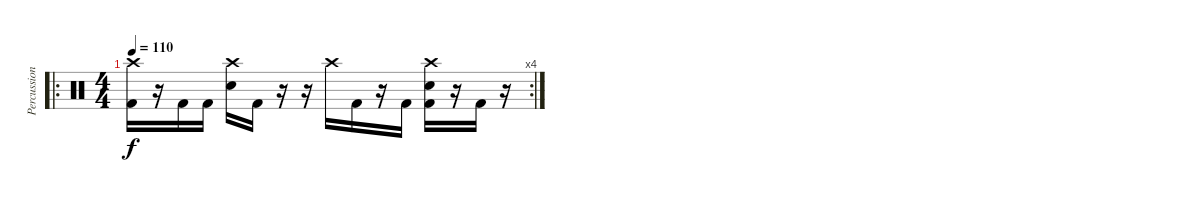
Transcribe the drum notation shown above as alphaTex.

\track ("Percussion" "Percussion") {instrument percussion}
\staff {score}
\articulation defaults
\ro
\rc 4
\ts (4 4)
\tempo 110
\clef neutral
\ks c
("Crash high (hit)" "Kick (hit) 2").16{dy f} r.16 "Kick (hit) 2".16 "Kick (hit) 2".16 ("Crash high (hit)" "Electric Snare (hit)").16 "Kick (hit) 2".16 r.16 r.16 "Crash high (hit)".16 "Kick (hit) 2".16 r.16 "Kick (hit) 2".16 ("Crash high (hit)" "Electric Snare (hit)" "Kick (hit) 2").16 r.16 "Kick (hit) 2".16 r.16
